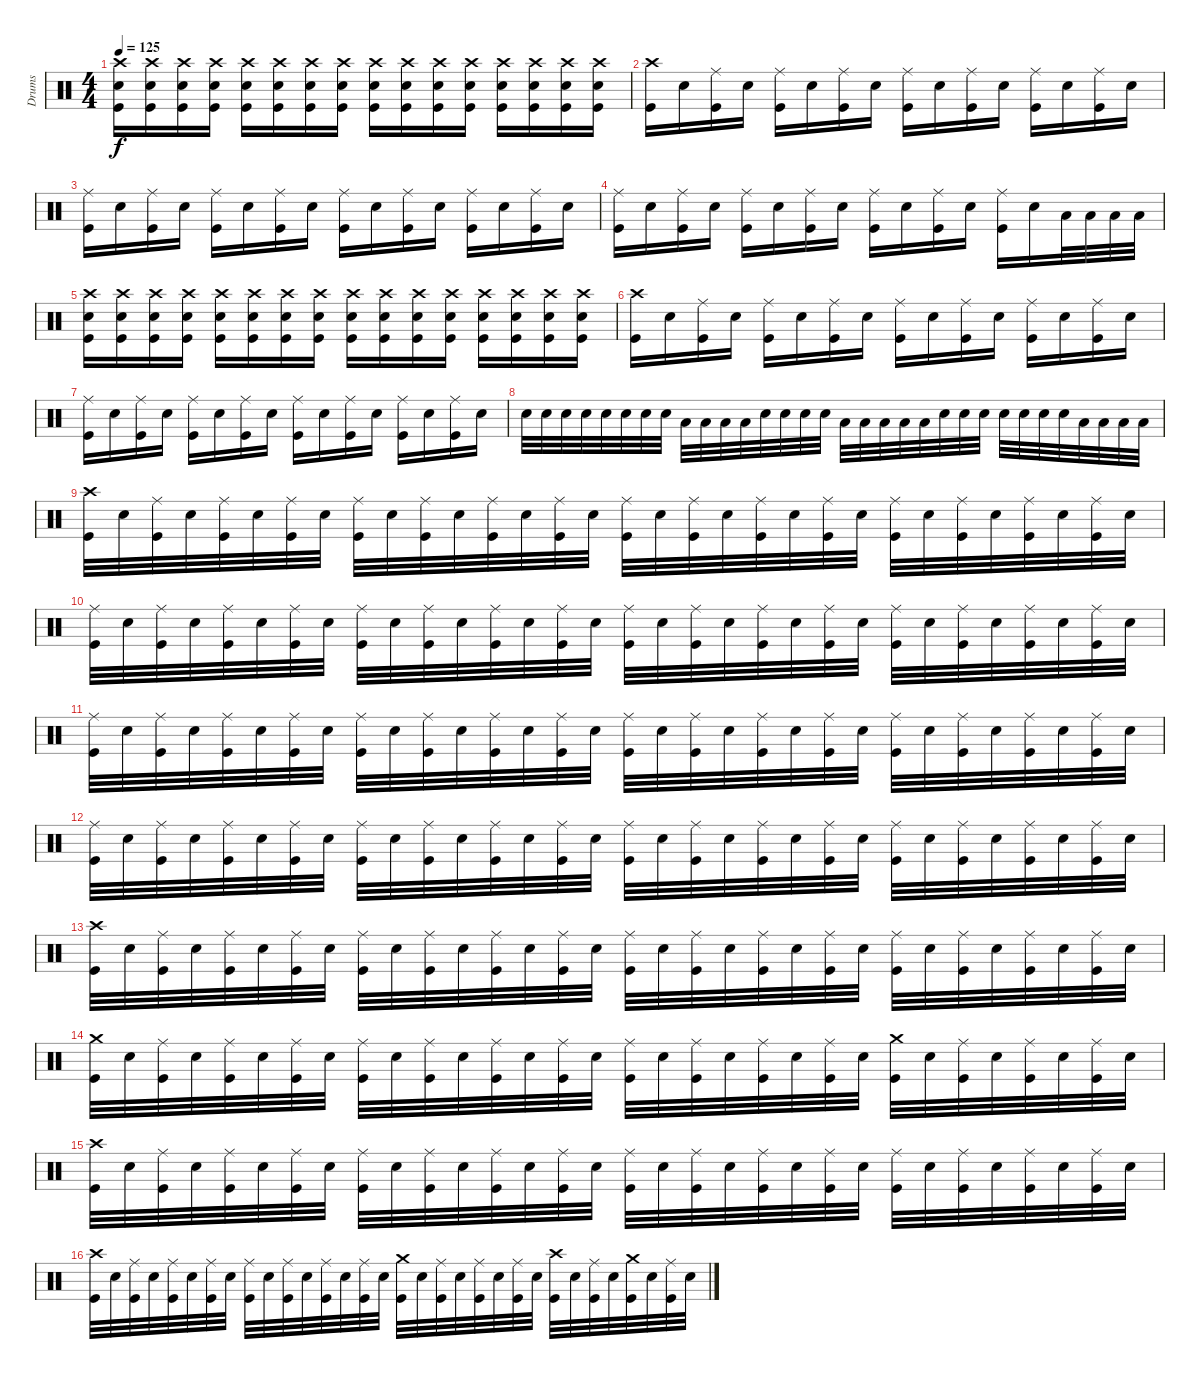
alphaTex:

\track ("Drums" "Drums") {instrument percussion}
\staff {score}
\articulation defaults
\ts (4 4)
\tempo 125
\clef neutral
\ks c
("Crash high (hit)" "Electric Snare (hit)" "Kick (hit)").16{dy f} ("Crash high (hit)" "Electric Snare (hit)" "Kick (hit)").16 ("Crash high (hit)" "Electric Snare (hit)" "Kick (hit)").16 ("Crash high (hit)" "Electric Snare (hit)" "Kick (hit)").16 ("Crash high (hit)" "Electric Snare (hit)" "Kick (hit)").16 ("Crash high (hit)" "Electric Snare (hit)" "Kick (hit)").16 ("Crash high (hit)" "Electric Snare (hit)" "Kick (hit)").16 ("Crash high (hit)" "Electric Snare (hit)" "Kick (hit)").16 ("Crash high (hit)" "Electric Snare (hit)" "Kick (hit)").16 ("Crash high (hit)" "Electric Snare (hit)" "Kick (hit)").16 ("Crash high (hit)" "Electric Snare (hit)" "Kick (hit)").16 ("Crash high (hit)" "Electric Snare (hit)" "Kick (hit)").16 ("Crash high (hit)" "Electric Snare (hit)" "Kick (hit)").16 ("Crash high (hit)" "Electric Snare (hit)" "Kick (hit)").16 ("Crash high (hit)" "Electric Snare (hit)" "Kick (hit)").16 ("Crash high (hit)" "Electric Snare (hit)" "Kick (hit)").16 |
("Crash high (hit)" "Kick (hit)").16 "Electric Snare (hit)".16 ("Ride (middle)" "Kick (hit)").16 "Electric Snare (hit)".16 ("Ride (middle)" "Kick (hit)").16 "Electric Snare (hit)".16 ("Ride (middle)" "Kick (hit)").16 "Electric Snare (hit)".16 ("Ride (middle)" "Kick (hit)").16 "Electric Snare (hit)".16 ("Ride (middle)" "Kick (hit)").16 "Electric Snare (hit)".16 ("Ride (middle)" "Kick (hit)").16 "Electric Snare (hit)".16 ("Ride (middle)" "Kick (hit)").16 "Electric Snare (hit)".16 |
("Ride (middle)" "Kick (hit)").16 "Electric Snare (hit)".16 ("Ride (middle)" "Kick (hit)").16 "Electric Snare (hit)".16 ("Ride (middle)" "Kick (hit)").16 "Electric Snare (hit)".16 ("Ride (middle)" "Kick (hit)").16 "Electric Snare (hit)".16 ("Ride (middle)" "Kick (hit)").16 "Electric Snare (hit)".16 ("Ride (middle)" "Kick (hit)").16 "Electric Snare (hit)".16 ("Ride (middle)" "Kick (hit)").16 "Electric Snare (hit)".16 ("Ride (middle)" "Kick (hit)").16 "Electric Snare (hit)".16 |
("Ride (middle)" "Kick (hit)").16 "Electric Snare (hit)".16 ("Ride (middle)" "Kick (hit)").16 "Electric Snare (hit)".16 ("Ride (middle)" "Kick (hit)").16 "Electric Snare (hit)".16 ("Ride (middle)" "Kick (hit)").16 "Electric Snare (hit)".16 ("Ride (middle)" "Kick (hit)").16 "Electric Snare (hit)".16 ("Ride (middle)" "Kick (hit)").16 "Electric Snare (hit)".16 ("Ride (middle)" "Kick (hit)").16 "Electric Snare (hit)".16 "Low Tom (hit)".32 "Low Tom (hit)".32 "Low Tom (hit)".32 "Low Tom (hit)".32 |
("Crash high (hit)" "Electric Snare (hit)" "Kick (hit)").16 ("Crash high (hit)" "Electric Snare (hit)" "Kick (hit)").16 ("Crash high (hit)" "Electric Snare (hit)" "Kick (hit)").16 ("Crash high (hit)" "Electric Snare (hit)" "Kick (hit)").16 ("Crash high (hit)" "Electric Snare (hit)" "Kick (hit)").16 ("Crash high (hit)" "Electric Snare (hit)" "Kick (hit)").16 ("Crash high (hit)" "Electric Snare (hit)" "Kick (hit)").16 ("Crash high (hit)" "Electric Snare (hit)" "Kick (hit)").16 ("Crash high (hit)" "Electric Snare (hit)" "Kick (hit)").16 ("Crash high (hit)" "Electric Snare (hit)" "Kick (hit)").16 ("Crash high (hit)" "Electric Snare (hit)" "Kick (hit)").16 ("Crash high (hit)" "Electric Snare (hit)" "Kick (hit)").16 ("Crash high (hit)" "Electric Snare (hit)" "Kick (hit)").16 ("Crash high (hit)" "Electric Snare (hit)" "Kick (hit)").16 ("Crash high (hit)" "Electric Snare (hit)" "Kick (hit)").16 ("Crash high (hit)" "Electric Snare (hit)" "Kick (hit)").16 |
("Crash high (hit)" "Kick (hit)").16 "Electric Snare (hit)".16 ("Ride (middle)" "Kick (hit)").16 "Electric Snare (hit)".16 ("Ride (middle)" "Kick (hit)").16 "Electric Snare (hit)".16 ("Ride (middle)" "Kick (hit)").16 "Electric Snare (hit)".16 ("Ride (middle)" "Kick (hit)").16 "Electric Snare (hit)".16 ("Ride (middle)" "Kick (hit)").16 "Electric Snare (hit)".16 ("Ride (middle)" "Kick (hit)").16 "Electric Snare (hit)".16 ("Ride (middle)" "Kick (hit)").16 "Electric Snare (hit)".16 |
("Ride (middle)" "Kick (hit)").16 "Electric Snare (hit)".16 ("Ride (middle)" "Kick (hit)").16 "Electric Snare (hit)".16 ("Ride (middle)" "Kick (hit)").16 "Electric Snare (hit)".16 ("Ride (middle)" "Kick (hit)").16 "Electric Snare (hit)".16 ("Ride (middle)" "Kick (hit)").16 "Electric Snare (hit)".16 ("Ride (middle)" "Kick (hit)").16 "Electric Snare (hit)".16 ("Ride (middle)" "Kick (hit)").16 "Electric Snare (hit)".16 ("Ride (middle)" "Kick (hit)").16 "Electric Snare (hit)".16 |
"Electric Snare (hit)".32 "Electric Snare (hit)".32 "Electric Snare (hit)".32 "Electric Snare (hit)".32 "Electric Snare (hit)".32 "Electric Snare (hit)".32 "Electric Snare (hit)".32 "Electric Snare (hit)".32 "Low Tom (hit)".32 "Low Tom (hit)".32 "Low Tom (hit)".32 "Low Tom (hit)".32 "Electric Snare (hit)".32 "Electric Snare (hit)".32 "Electric Snare (hit)".32 "Electric Snare (hit)".32 "Low Tom (hit)".32 "Low Tom (hit)".32 "Low Tom (hit)".32 "Low Tom (hit)".32 "Low Tom (hit)".32 "Electric Snare (hit)".32 "Electric Snare (hit)".32 "Electric Snare (hit)".32 "Electric Snare (hit)".32 "Electric Snare (hit)".32 "Electric Snare (hit)".32 "Electric Snare (hit)".32 "Low Tom (hit)".32 "Low Tom (hit)".32 "Low Tom (hit)".32 "Low Tom (hit)".32 |
("Crash high (hit)" "Kick (hit)").32 "Electric Snare (hit)".32 ("Ride (middle)" "Kick (hit)").32 "Electric Snare (hit)".32 ("Ride (middle)" "Kick (hit)").32 "Electric Snare (hit)".32 ("Ride (middle)" "Kick (hit)").32 "Electric Snare (hit)".32 ("Ride (middle)" "Kick (hit)").32 "Electric Snare (hit)".32 ("Ride (middle)" "Kick (hit)").32 "Electric Snare (hit)".32 ("Ride (middle)" "Kick (hit)").32 "Electric Snare (hit)".32 ("Ride (middle)" "Kick (hit)").32 "Electric Snare (hit)".32 ("Ride (middle)" "Kick (hit)").32 "Electric Snare (hit)".32 ("Ride (middle)" "Kick (hit)").32 "Electric Snare (hit)".32 ("Ride (middle)" "Kick (hit)").32 "Electric Snare (hit)".32 ("Ride (middle)" "Kick (hit)").32 "Electric Snare (hit)".32 ("Ride (middle)" "Kick (hit)").32 "Electric Snare (hit)".32 ("Ride (middle)" "Kick (hit)").32 "Electric Snare (hit)".32 ("Ride (middle)" "Kick (hit)").32 "Electric Snare (hit)".32 ("Ride (middle)" "Kick (hit)").32 "Electric Snare (hit)".32 |
("Ride (middle)" "Kick (hit)").32 "Electric Snare (hit)".32 ("Ride (middle)" "Kick (hit)").32 "Electric Snare (hit)".32 ("Ride (middle)" "Kick (hit)").32 "Electric Snare (hit)".32 ("Ride (middle)" "Kick (hit)").32 "Electric Snare (hit)".32 ("Ride (middle)" "Kick (hit)").32 "Electric Snare (hit)".32 ("Ride (middle)" "Kick (hit)").32 "Electric Snare (hit)".32 ("Ride (middle)" "Kick (hit)").32 "Electric Snare (hit)".32 ("Ride (middle)" "Kick (hit)").32 "Electric Snare (hit)".32 ("Ride (middle)" "Kick (hit)").32 "Electric Snare (hit)".32 ("Ride (middle)" "Kick (hit)").32 "Electric Snare (hit)".32 ("Ride (middle)" "Kick (hit)").32 "Electric Snare (hit)".32 ("Ride (middle)" "Kick (hit)").32 "Electric Snare (hit)".32 ("Ride (middle)" "Kick (hit)").32 "Electric Snare (hit)".32 ("Ride (middle)" "Kick (hit)").32 "Electric Snare (hit)".32 ("Ride (middle)" "Kick (hit)").32 "Electric Snare (hit)".32 ("Ride (middle)" "Kick (hit)").32 "Electric Snare (hit)".32 |
("Ride (middle)" "Kick (hit)").32 "Electric Snare (hit)".32 ("Ride (middle)" "Kick (hit)").32 "Electric Snare (hit)".32 ("Ride (middle)" "Kick (hit)").32 "Electric Snare (hit)".32 ("Ride (middle)" "Kick (hit)").32 "Electric Snare (hit)".32 ("Ride (middle)" "Kick (hit)").32 "Electric Snare (hit)".32 ("Ride (middle)" "Kick (hit)").32 "Electric Snare (hit)".32 ("Ride (middle)" "Kick (hit)").32 "Electric Snare (hit)".32 ("Ride (middle)" "Kick (hit)").32 "Electric Snare (hit)".32 ("Ride (middle)" "Kick (hit)").32 "Electric Snare (hit)".32 ("Ride (middle)" "Kick (hit)").32 "Electric Snare (hit)".32 ("Ride (middle)" "Kick (hit)").32 "Electric Snare (hit)".32 ("Ride (middle)" "Kick (hit)").32 "Electric Snare (hit)".32 ("Ride (middle)" "Kick (hit)").32 "Electric Snare (hit)".32 ("Ride (middle)" "Kick (hit)").32 "Electric Snare (hit)".32 ("Ride (middle)" "Kick (hit)").32 "Electric Snare (hit)".32 ("Ride (middle)" "Kick (hit)").32 "Electric Snare (hit)".32 |
("Ride (middle)" "Kick (hit)").32 "Electric Snare (hit)".32 ("Ride (middle)" "Kick (hit)").32 "Electric Snare (hit)".32 ("Ride (middle)" "Kick (hit)").32 "Electric Snare (hit)".32 ("Ride (middle)" "Kick (hit)").32 "Electric Snare (hit)".32 ("Ride (middle)" "Kick (hit)").32 "Electric Snare (hit)".32 ("Ride (middle)" "Kick (hit)").32 "Electric Snare (hit)".32 ("Ride (middle)" "Kick (hit)").32 "Electric Snare (hit)".32 ("Ride (middle)" "Kick (hit)").32 "Electric Snare (hit)".32 ("Ride (middle)" "Kick (hit)").32 "Electric Snare (hit)".32 ("Ride (middle)" "Kick (hit)").32 "Electric Snare (hit)".32 ("Ride (middle)" "Kick (hit)").32 "Electric Snare (hit)".32 ("Ride (middle)" "Kick (hit)").32 "Electric Snare (hit)".32 ("Ride (middle)" "Kick (hit)").32 "Electric Snare (hit)".32 ("Ride (middle)" "Kick (hit)").32 "Electric Snare (hit)".32 ("Ride (middle)" "Kick (hit)").32 "Electric Snare (hit)".32 ("Ride (middle)" "Kick (hit)").32 "Electric Snare (hit)".32 |
("Crash high (hit)" "Kick (hit)").32 "Electric Snare (hit)".32 ("Ride (middle)" "Kick (hit)").32 "Electric Snare (hit)".32 ("Ride (middle)" "Kick (hit)").32 "Electric Snare (hit)".32 ("Ride (middle)" "Kick (hit)").32 "Electric Snare (hit)".32 ("Ride (middle)" "Kick (hit)").32 "Electric Snare (hit)".32 ("Ride (middle)" "Kick (hit)").32 "Electric Snare (hit)".32 ("Ride (middle)" "Kick (hit)").32 "Electric Snare (hit)".32 ("Ride (middle)" "Kick (hit)").32 "Electric Snare (hit)".32 ("Ride (middle)" "Kick (hit)").32 "Electric Snare (hit)".32 ("Ride (middle)" "Kick (hit)").32 "Electric Snare (hit)".32 ("Ride (middle)" "Kick (hit)").32 "Electric Snare (hit)".32 ("Ride (middle)" "Kick (hit)").32 "Electric Snare (hit)".32 ("Ride (middle)" "Kick (hit)").32 "Electric Snare (hit)".32 ("Ride (middle)" "Kick (hit)").32 "Electric Snare (hit)".32 ("Ride (middle)" "Kick (hit)").32 "Electric Snare (hit)".32 ("Ride (middle)" "Kick (hit)").32 "Electric Snare (hit)".32 |
("Crash medium (hit)" "Kick (hit)").32 "Electric Snare (hit)".32 ("Ride (middle)" "Kick (hit)").32 "Electric Snare (hit)".32 ("Ride (middle)" "Kick (hit)").32 "Electric Snare (hit)".32 ("Ride (middle)" "Kick (hit)").32 "Electric Snare (hit)".32 ("Ride (middle)" "Kick (hit)").32 "Electric Snare (hit)".32 ("Ride (middle)" "Kick (hit)").32 "Electric Snare (hit)".32 ("Ride (middle)" "Kick (hit)").32 "Electric Snare (hit)".32 ("Ride (middle)" "Kick (hit)").32 "Electric Snare (hit)".32 ("Ride (middle)" "Kick (hit)").32 "Electric Snare (hit)".32 ("Ride (middle)" "Kick (hit)").32 "Electric Snare (hit)".32 ("Ride (middle)" "Kick (hit)").32 "Electric Snare (hit)".32 ("Ride (middle)" "Kick (hit)").32 "Electric Snare (hit)".32 ("Crash medium (hit)" "Kick (hit)").32 "Electric Snare (hit)".32 ("Ride (middle)" "Kick (hit)").32 "Electric Snare (hit)".32 ("Ride (middle)" "Kick (hit)").32 "Electric Snare (hit)".32 ("Ride (middle)" "Kick (hit)").32 "Electric Snare (hit)".32 |
("Crash high (hit)" "Kick (hit)").32 "Electric Snare (hit)".32 ("Ride (middle)" "Kick (hit)").32 "Electric Snare (hit)".32 ("Ride (middle)" "Kick (hit)").32 "Electric Snare (hit)".32 ("Ride (middle)" "Kick (hit)").32 "Electric Snare (hit)".32 ("Ride (middle)" "Kick (hit)").32 "Electric Snare (hit)".32 ("Ride (middle)" "Kick (hit)").32 "Electric Snare (hit)".32 ("Ride (middle)" "Kick (hit)").32 "Electric Snare (hit)".32 ("Ride (middle)" "Kick (hit)").32 "Electric Snare (hit)".32 ("Ride (middle)" "Kick (hit)").32 "Electric Snare (hit)".32 ("Ride (middle)" "Kick (hit)").32 "Electric Snare (hit)".32 ("Ride (middle)" "Kick (hit)").32 "Electric Snare (hit)".32 ("Ride (middle)" "Kick (hit)").32 "Electric Snare (hit)".32 ("Ride (middle)" "Kick (hit)").32 "Electric Snare (hit)".32 ("Ride (middle)" "Kick (hit)").32 "Electric Snare (hit)".32 ("Ride (middle)" "Kick (hit)").32 "Electric Snare (hit)".32 ("Ride (middle)" "Kick (hit)").32 "Electric Snare (hit)".32 |
("Crash high (hit)" "Kick (hit)").32 "Electric Snare (hit)".32 ("Ride (middle)" "Kick (hit)").32 "Electric Snare (hit)".32 ("Ride (middle)" "Kick (hit)").32 "Electric Snare (hit)".32 ("Ride (middle)" "Kick (hit)").32 "Electric Snare (hit)".32 ("Ride (middle)" "Kick (hit)").32 "Electric Snare (hit)".32 ("Ride (middle)" "Kick (hit)").32 "Electric Snare (hit)".32 ("Ride (middle)" "Kick (hit)").32 "Electric Snare (hit)".32 ("Ride (middle)" "Kick (hit)").32 "Electric Snare (hit)".32 ("Crash medium (hit)" "Kick (hit)").32 "Electric Snare (hit)".32 ("Ride (middle)" "Kick (hit)").32 "Electric Snare (hit)".32 ("Ride (middle)" "Kick (hit)").32 "Electric Snare (hit)".32 ("Ride (middle)" "Kick (hit)").32 "Electric Snare (hit)".32 ("Crash high (hit)" "Kick (hit)").32 "Electric Snare (hit)".32 ("Ride (middle)" "Kick (hit)").32 "Electric Snare (hit)".32 ("Crash medium (hit)" "Kick (hit)").32 "Electric Snare (hit)".32 ("Ride (middle)" "Kick (hit)").32 "Electric Snare (hit)".32
